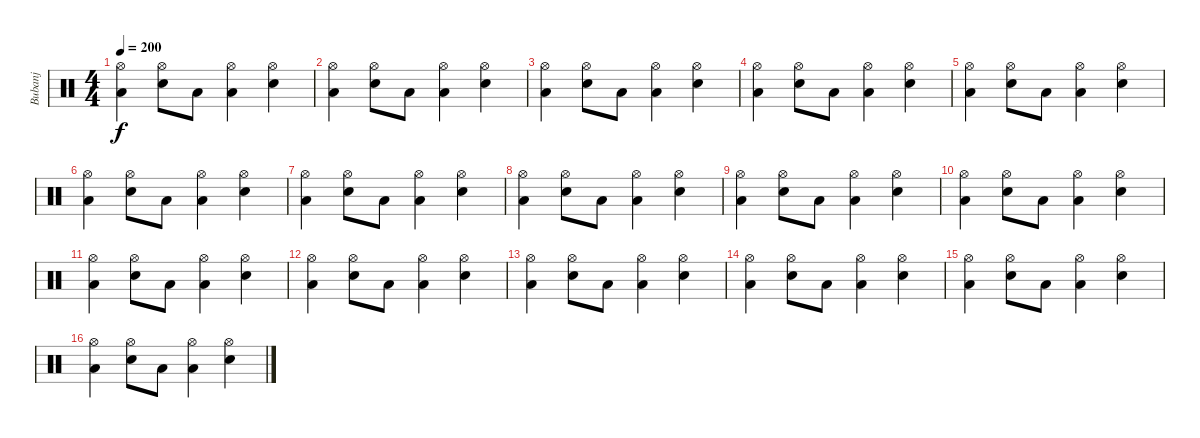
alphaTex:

\track ("Bubanj" "Bubanj") {instrument percussion}
\staff {score}
\articulation defaults
\ts (4 4)
\tempo 200
\clef neutral
\ks c
("Hi-Hat (open)" "Low Tom (hit)").4{dy f} ("Hi-Hat (open)" "Snare (hit) 2").8 "Low Tom (hit)".8 ("Hi-Hat (open)" "Low Tom (hit)").4 ("Hi-Hat (open)" "Snare (hit) 2").4 |
("Hi-Hat (open)" "Low Tom (hit)").4 ("Hi-Hat (open)" "Snare (hit) 2").8 "Low Tom (hit)".8 ("Hi-Hat (open)" "Low Tom (hit)").4 ("Hi-Hat (open)" "Snare (hit) 2").4 |
("Hi-Hat (open)" "Low Tom (hit)").4 ("Hi-Hat (open)" "Snare (hit) 2").8 "Low Tom (hit)".8 ("Hi-Hat (open)" "Low Tom (hit)").4 ("Hi-Hat (open)" "Snare (hit) 2").4 |
("Hi-Hat (open)" "Low Tom (hit)").4 ("Hi-Hat (open)" "Snare (hit) 2").8 "Low Tom (hit)".8 ("Hi-Hat (open)" "Low Tom (hit)").4 ("Hi-Hat (open)" "Snare (hit) 2").4 |
("Hi-Hat (open)" "Low Tom (hit)").4 ("Hi-Hat (open)" "Snare (hit) 2").8 "Low Tom (hit)".8 ("Hi-Hat (open)" "Low Tom (hit)").4 ("Hi-Hat (open)" "Snare (hit) 2").4 |
("Hi-Hat (open)" "Low Tom (hit)").4 ("Hi-Hat (open)" "Snare (hit) 2").8 "Low Tom (hit)".8 ("Hi-Hat (open)" "Low Tom (hit)").4 ("Hi-Hat (open)" "Snare (hit) 2").4 |
("Hi-Hat (open)" "Low Tom (hit)").4 ("Hi-Hat (open)" "Snare (hit) 2").8 "Low Tom (hit)".8 ("Hi-Hat (open)" "Low Tom (hit)").4 ("Hi-Hat (open)" "Snare (hit) 2").4 |
("Hi-Hat (open)" "Low Tom (hit)").4 ("Hi-Hat (open)" "Snare (hit) 2").8 "Low Tom (hit)".8 ("Hi-Hat (open)" "Low Tom (hit)").4 ("Hi-Hat (open)" "Snare (hit) 2").4 |
("Hi-Hat (open)" "Low Tom (hit)").4 ("Hi-Hat (open)" "Snare (hit) 2").8 "Low Tom (hit)".8 ("Hi-Hat (open)" "Low Tom (hit)").4 ("Hi-Hat (open)" "Snare (hit) 2").4 |
("Hi-Hat (open)" "Low Tom (hit)").4 ("Hi-Hat (open)" "Snare (hit) 2").8 "Low Tom (hit)".8 ("Hi-Hat (open)" "Low Tom (hit)").4 ("Hi-Hat (open)" "Snare (hit) 2").4 |
("Hi-Hat (open)" "Low Tom (hit)").4 ("Hi-Hat (open)" "Snare (hit) 2").8 "Low Tom (hit)".8 ("Hi-Hat (open)" "Low Tom (hit)").4 ("Hi-Hat (open)" "Snare (hit) 2").4 |
("Hi-Hat (open)" "Low Tom (hit)").4 ("Hi-Hat (open)" "Snare (hit) 2").8 "Low Tom (hit)".8 ("Hi-Hat (open)" "Low Tom (hit)").4 ("Hi-Hat (open)" "Snare (hit) 2").4 |
("Hi-Hat (open)" "Low Tom (hit)").4 ("Hi-Hat (open)" "Snare (hit) 2").8 "Low Tom (hit)".8 ("Hi-Hat (open)" "Low Tom (hit)").4 ("Hi-Hat (open)" "Snare (hit) 2").4 |
("Hi-Hat (open)" "Low Tom (hit)").4 ("Hi-Hat (open)" "Snare (hit) 2").8 "Low Tom (hit)".8 ("Hi-Hat (open)" "Low Tom (hit)").4 ("Hi-Hat (open)" "Snare (hit) 2").4 |
("Hi-Hat (open)" "Low Tom (hit)").4 ("Hi-Hat (open)" "Snare (hit) 2").8 "Low Tom (hit)".8 ("Hi-Hat (open)" "Low Tom (hit)").4 ("Hi-Hat (open)" "Snare (hit) 2").4 |
("Hi-Hat (open)" "Low Tom (hit)").4 ("Hi-Hat (open)" "Snare (hit) 2").8 "Low Tom (hit)".8 ("Hi-Hat (open)" "Low Tom (hit)").4 ("Hi-Hat (open)" "Snare (hit) 2").4
